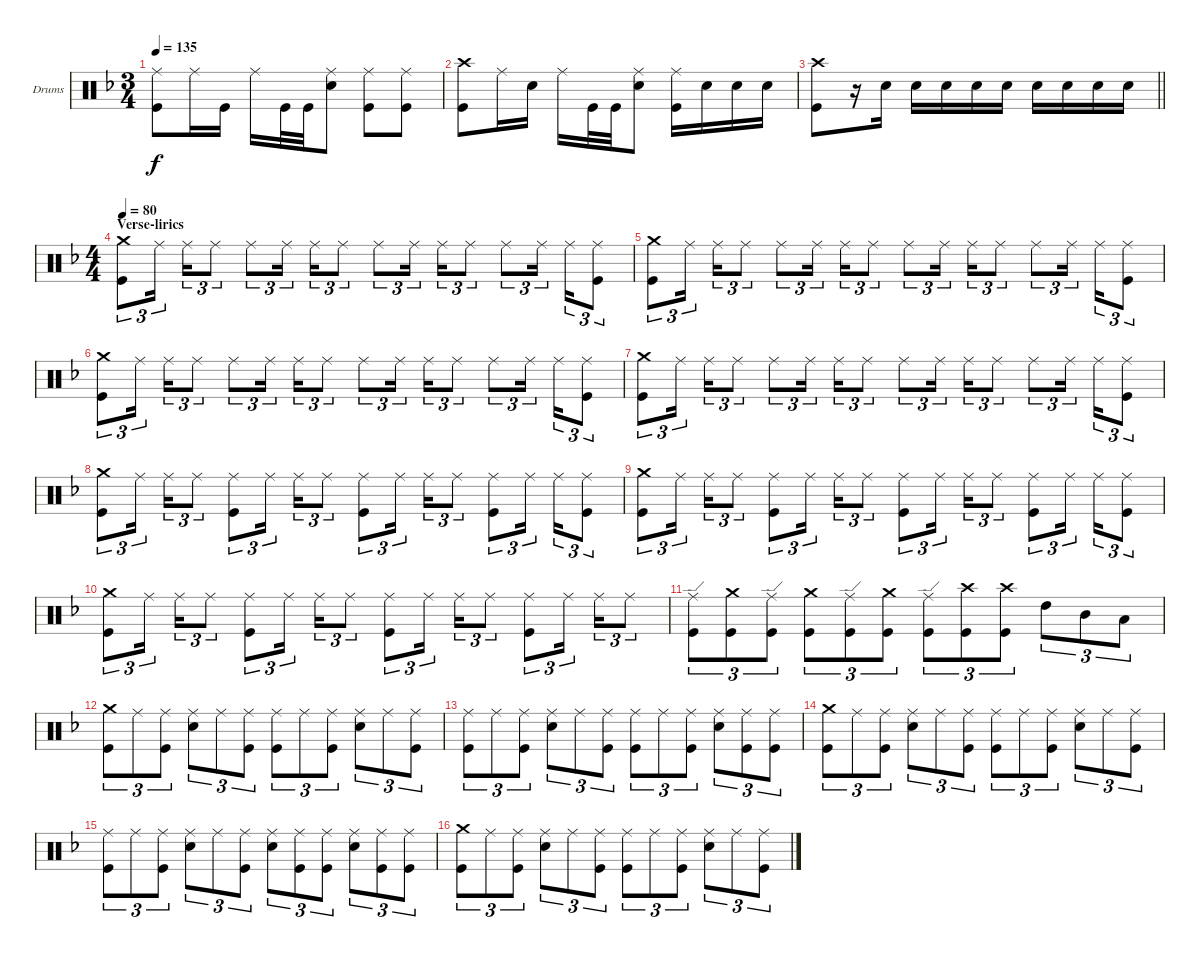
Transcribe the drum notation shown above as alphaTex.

\bracketExtendMode groupsimilarinstruments
\firstSystemTrackNameOrientation horizontal
\otherSystemsTrackNameOrientation horizontal
\track ("drums (Anton Zulganov)" "Drums") {instrument percussion}
\staff {score}
\articulation defaults
\ts (3 4)
\tempo 135
\clef neutral
\ks dminor
("Kick (hit)" "Ride (middle)").8{dy f} "Ride (middle)".16 "Kick (hit)".16 "Ride (middle)".16 "Kick (hit)".32 "Kick (hit)".32 ("Ride (middle)" "Snare (hit) 2").8 ("Ride (middle)" "Kick (hit)").8 ("Ride (middle)" "Kick (hit)").8 |
("Kick (hit)" "Crash high (hit)").8 "Ride (middle)".16 "Snare (hit) 2".16 "Ride (middle)".16 "Kick (hit)".32 "Kick (hit)".32 ("Ride (middle)" "Snare (hit) 2").8 ("Ride (middle)" "Kick (hit)").16 "Snare (hit) 2".16 "Snare (hit) 2".16 "Snare (hit) 2".16 |
\barLineRight lightlight
("Kick (hit)" "Crash high (hit)").8 r.16 "Snare (hit) 2".16 "Snare (hit) 2".16 "Snare (hit) 2".16 "Snare (hit) 2".16 "Snare (hit) 2".16 "Snare (hit) 2".16 "Snare (hit) 2".16 "Snare (hit) 2".16 "Snare (hit) 2".16 |
\ts (4 4)
\beaming (8 2 2 2 2)
\section ("" "Verse-lirics")
\tempo 80
("Kick (hit)" "Crash medium (hit)").8{tu (3 2)} "Ride (middle)".16{tu (3 2)} "Ride (middle)".16{tu (3 2)} "Ride (middle)".8{tu (3 2)} "Ride (middle)".8{tu (3 2)} "Ride (middle)".16{tu (3 2)} "Ride (middle)".16{tu (3 2)} "Ride (middle)".8{tu (3 2)} "Ride (middle)".8{tu (3 2)} "Ride (middle)".16{tu (3 2)} "Ride (middle)".16{tu (3 2)} "Ride (middle)".8{tu (3 2)} "Ride (middle)".8{tu (3 2)} "Ride (middle)".16{tu (3 2)} "Ride (middle)".16{tu (3 2)} ("Ride (middle)" "Kick (hit)").8{tu (3 2)} |
("Kick (hit)" "Crash medium (hit)").8{tu (3 2)} "Ride (middle)".16{tu (3 2)} "Ride (middle)".16{tu (3 2)} "Ride (middle)".8{tu (3 2)} "Ride (middle)".8{tu (3 2)} "Ride (middle)".16{tu (3 2)} "Ride (middle)".16{tu (3 2)} "Ride (middle)".8{tu (3 2)} "Ride (middle)".8{tu (3 2)} "Ride (middle)".16{tu (3 2)} "Ride (middle)".16{tu (3 2)} "Ride (middle)".8{tu (3 2)} "Ride (middle)".8{tu (3 2)} "Ride (middle)".16{tu (3 2)} "Ride (middle)".16{tu (3 2)} ("Ride (middle)" "Kick (hit)").8{tu (3 2)} |
("Kick (hit)" "Crash medium (hit)").8{tu (3 2)} "Ride (middle)".16{tu (3 2)} "Ride (middle)".16{tu (3 2)} "Ride (middle)".8{tu (3 2)} "Ride (middle)".8{tu (3 2)} "Ride (middle)".16{tu (3 2)} "Ride (middle)".16{tu (3 2)} "Ride (middle)".8{tu (3 2)} "Ride (middle)".8{tu (3 2)} "Ride (middle)".16{tu (3 2)} "Ride (middle)".16{tu (3 2)} "Ride (middle)".8{tu (3 2)} "Ride (middle)".8{tu (3 2)} "Ride (middle)".16{tu (3 2)} "Ride (middle)".16{tu (3 2)} ("Ride (middle)" "Kick (hit)").8{tu (3 2)} |
("Kick (hit)" "Crash medium (hit)").8{tu (3 2)} "Ride (middle)".16{tu (3 2)} "Ride (middle)".16{tu (3 2)} "Ride (middle)".8{tu (3 2)} "Ride (middle)".8{tu (3 2)} "Ride (middle)".16{tu (3 2)} "Ride (middle)".16{tu (3 2)} "Ride (middle)".8{tu (3 2)} "Ride (middle)".8{tu (3 2)} "Ride (middle)".16{tu (3 2)} "Ride (middle)".16{tu (3 2)} "Ride (middle)".8{tu (3 2)} "Ride (middle)".8{tu (3 2)} "Ride (middle)".16{tu (3 2)} "Ride (middle)".16{tu (3 2)} ("Ride (middle)" "Kick (hit)").8{tu (3 2)} |
("Kick (hit)" "Crash medium (hit)").8{tu (3 2)} "Ride (middle)".16{tu (3 2)} "Ride (middle)".16{tu (3 2)} "Ride (middle)".8{tu (3 2)} ("Ride (middle)" "Kick (hit)").8{tu (3 2)} "Ride (middle)".16{tu (3 2)} "Ride (middle)".16{tu (3 2)} "Ride (middle)".8{tu (3 2)} ("Ride (middle)" "Kick (hit)").8{tu (3 2)} "Ride (middle)".16{tu (3 2)} "Ride (middle)".16{tu (3 2)} "Ride (middle)".8{tu (3 2)} ("Ride (middle)" "Kick (hit)").8{tu (3 2)} "Ride (middle)".16{tu (3 2)} "Ride (middle)".16{tu (3 2)} ("Ride (middle)" "Kick (hit)").8{tu (3 2)} |
("Kick (hit)" "Crash medium (hit)").8{tu (3 2)} "Ride (middle)".16{tu (3 2)} "Ride (middle)".16{tu (3 2)} "Ride (middle)".8{tu (3 2)} ("Ride (middle)" "Kick (hit)").8{tu (3 2)} "Ride (middle)".16{tu (3 2)} "Ride (middle)".16{tu (3 2)} "Ride (middle)".8{tu (3 2)} ("Ride (middle)" "Kick (hit)").8{tu (3 2)} "Ride (middle)".16{tu (3 2)} "Ride (middle)".16{tu (3 2)} "Ride (middle)".8{tu (3 2)} ("Ride (middle)" "Kick (hit)").8{tu (3 2)} "Ride (middle)".16{tu (3 2)} "Ride (middle)".16{tu (3 2)} ("Ride (middle)" "Kick (hit)").8{tu (3 2)} |
("Kick (hit)" "Crash medium (hit)").8{tu (3 2)} "Ride (middle)".16{tu (3 2)} "Ride (middle)".16{tu (3 2)} "Ride (middle)".8{tu (3 2)} ("Ride (middle)" "Kick (hit)").8{tu (3 2)} "Ride (middle)".16{tu (3 2)} "Ride (middle)".16{tu (3 2)} "Ride (middle)".8{tu (3 2)} ("Ride (middle)" "Kick (hit)").8{tu (3 2)} "Ride (middle)".16{tu (3 2)} "Ride (middle)".16{tu (3 2)} "Ride (middle)".8{tu (3 2)} ("Ride (middle)" "Kick (hit)").8{tu (3 2)} "Ride (middle)".16{tu (3 2)} "Ride (middle)".16{tu (3 2)} "Ride (middle)".8{tu (3 2)} |
("Kick (hit)" "Ride (edge)").8{tu (3 2)} ("Kick (hit)" "Crash medium (hit)").8{tu (3 2)} ("Kick (hit)" "Ride (edge)").8{tu (3 2)} ("Kick (hit)" "Crash medium (hit)").8{tu (3 2)} ("Kick (hit)" "Ride (edge)").8{tu (3 2)} ("Kick (hit)" "Crash medium (hit)").8{tu (3 2)} ("Kick (hit)" "Ride (edge)").8{tu (3 2)} ("Kick (hit)" "Crash high (hit)").8{tu (3 2)} ("Kick (hit)" "Crash high (hit)").8{tu (3 2)} "High Tom (hit)".8{tu (3 2)} "Mid Tom (hit)".8{tu (3 2)} "Low Tom (hit)".8{tu (3 2)} |
("Kick (hit)" "Crash medium (hit)").8{tu (3 2)} "Ride (middle)".8{tu (3 2)} ("Ride (middle)" "Kick (hit)").8{tu (3 2)} ("Ride (middle)" "Snare (hit) 2").8{tu (3 2)} "Ride (middle)".8{tu (3 2)} ("Ride (middle)" "Kick (hit)").8{tu (3 2)} ("Ride (middle)" "Kick (hit)").8{tu (3 2)} "Ride (middle)".8{tu (3 2)} ("Ride (middle)" "Kick (hit)").8{tu (3 2)} ("Ride (middle)" "Snare (hit) 2").8{tu (3 2)} "Ride (middle)".8{tu (3 2)} ("Ride (middle)" "Kick (hit)").8{tu (3 2)} |
("Kick (hit)" "Ride (middle)").8{tu (3 2)} "Ride (middle)".8{tu (3 2)} ("Ride (middle)" "Kick (hit)").8{tu (3 2)} ("Snare (hit) 2" "Ride (middle)").8{tu (3 2)} "Ride (middle)".8{tu (3 2)} ("Ride (middle)" "Kick (hit)").8{tu (3 2)} ("Kick (hit)" "Ride (middle)").8{tu (3 2)} "Ride (middle)".8{tu (3 2)} ("Ride (middle)" "Kick (hit)").8{tu (3 2)} ("Snare (hit) 2" "Ride (middle)").8{tu (3 2)} ("Ride (middle)" "Kick (hit)").8{tu (3 2)} ("Ride (middle)" "Kick (hit)").8{tu (3 2)} |
("Kick (hit)" "Crash medium (hit)").8{tu (3 2)} "Ride (middle)".8{tu (3 2)} ("Ride (middle)" "Kick (hit)").8{tu (3 2)} ("Ride (middle)" "Snare (hit) 2").8{tu (3 2)} "Ride (middle)".8{tu (3 2)} ("Ride (middle)" "Kick (hit)").8{tu (3 2)} ("Ride (middle)" "Kick (hit)").8{tu (3 2)} "Ride (middle)".8{tu (3 2)} ("Ride (middle)" "Kick (hit)").8{tu (3 2)} ("Ride (middle)" "Snare (hit) 2").8{tu (3 2)} "Ride (middle)".8{tu (3 2)} ("Ride (middle)" "Kick (hit)").8{tu (3 2)} |
("Kick (hit)" "Ride (middle)").8{tu (3 2)} "Ride (middle)".8{tu (3 2)} ("Ride (middle)" "Kick (hit)").8{tu (3 2)} ("Snare (hit) 2" "Ride (middle)").8{tu (3 2)} "Ride (middle)".8{tu (3 2)} ("Ride (middle)" "Kick (hit)").8{tu (3 2)} ("Snare (hit) 2" "Ride (middle)").8{tu (3 2)} ("Ride (middle)" "Kick (hit)").8{tu (3 2)} ("Ride (middle)" "Kick (hit)").8{tu (3 2)} ("Snare (hit) 2" "Ride (middle)").8{tu (3 2)} ("Ride (middle)" "Kick (hit)").8{tu (3 2)} ("Ride (middle)" "Kick (hit)").8{tu (3 2)} |
("Kick (hit)" "Crash medium (hit)").8{tu (3 2)} "Ride (middle)".8{tu (3 2)} ("Ride (middle)" "Kick (hit)").8{tu (3 2)} ("Ride (middle)" "Snare (hit) 2").8{tu (3 2)} "Ride (middle)".8{tu (3 2)} ("Ride (middle)" "Kick (hit)").8{tu (3 2)} ("Ride (middle)" "Kick (hit)").8{tu (3 2)} "Ride (middle)".8{tu (3 2)} ("Ride (middle)" "Kick (hit)").8{tu (3 2)} ("Ride (middle)" "Snare (hit) 2").8{tu (3 2)} "Ride (middle)".8{tu (3 2)} ("Ride (middle)" "Kick (hit)").8{tu (3 2)}
